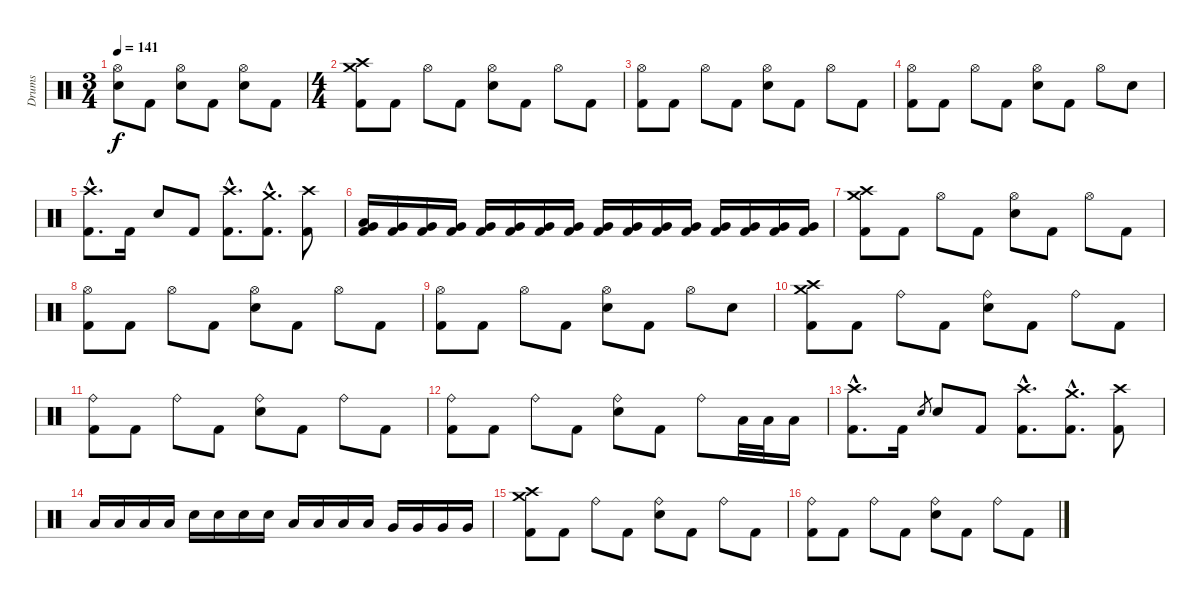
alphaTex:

\track ("Drums" "Drums") {instrument percussion}
\staff {score}
\articulation defaults
\ts (3 4)
\tempo 141
\clef neutral
\ks c
("Hi-Hat (open)" "Snare (hit) 2").8{dy f} "Kick (hit) 2".8 ("Hi-Hat (open)" "Snare (hit) 2").8 "Kick (hit) 2".8 ("Hi-Hat (open)" "Snare (hit) 2").8 "Kick (hit) 2".8 |
\ts (4 4)
("Crash high (hit)" "Crash medium (hit)" "Kick (hit) 2").8 "Kick (hit) 2".8 "Hi-Hat (open)".8 "Kick (hit) 2".8 ("Hi-Hat (open)" "Snare (hit) 2").8 "Kick (hit) 2".8 "Hi-Hat (open)".8 "Kick (hit) 2".8 |
("Hi-Hat (open)" "Kick (hit) 2").8 "Kick (hit) 2".8 "Hi-Hat (open)".8 "Kick (hit) 2".8 ("Hi-Hat (open)" "Snare (hit) 2").8 "Kick (hit) 2".8 "Hi-Hat (open)".8 "Kick (hit) 2".8 |
("Hi-Hat (open)" "Kick (hit) 2").8 "Kick (hit) 2".8 "Hi-Hat (open)".8 "Kick (hit) 2".8 ("Hi-Hat (open)" "Snare (hit) 2").8 "Kick (hit) 2".8 "Hi-Hat (open)".8 "Snare (hit) 2".8 |
("Crash high (hit)"{hac} "Kick (hit) 2"{hac}).8{d} "Kick (hit) 2".16 "Snare (hit) 2".8 "Kick (hit) 2".8 ("Crash high (hit)"{hac} "Kick (hit) 2"{hac}).8{d} ("Crash medium (hit)"{hac} "Kick (hit) 2"{hac}).8{d} ("Crash high (hit)" "Kick (hit) 2").8 |
("Very Low Tom (hit)" "Low Floor Tom (hit)" "Kick (hit) 2").16 ("Very Low Tom (hit)" "Kick (hit) 2").16 ("Very Low Tom (hit)" "Kick (hit) 2").16 ("Very Low Tom (hit)" "Kick (hit) 2").16 ("Very Low Tom (hit)" "Kick (hit) 2").16 ("Very Low Tom (hit)" "Kick (hit) 2").16 ("Very Low Tom (hit)" "Kick (hit) 2").16 ("Very Low Tom (hit)" "Kick (hit) 2").16 ("Very Low Tom (hit)" "Kick (hit) 2").16 ("Very Low Tom (hit)" "Kick (hit) 2").16 ("Very Low Tom (hit)" "Kick (hit) 2").16 ("Very Low Tom (hit)" "Kick (hit) 2").16 ("Very Low Tom (hit)" "Kick (hit) 2").16 ("Very Low Tom (hit)" "Kick (hit) 2").16 ("Very Low Tom (hit)" "Kick (hit) 2").16 ("Very Low Tom (hit)" "Kick (hit) 2").16 |
("Crash high (hit)" "Crash medium (hit)" "Kick (hit) 2").8 "Kick (hit) 2".8 "Hi-Hat (open)".8 "Kick (hit) 2".8 ("Hi-Hat (open)" "Snare (hit) 2").8 "Kick (hit) 2".8 "Hi-Hat (open)".8 "Kick (hit) 2".8 |
("Hi-Hat (open)" "Kick (hit) 2").8 "Kick (hit) 2".8 "Hi-Hat (open)".8 "Kick (hit) 2".8 ("Hi-Hat (open)" "Snare (hit) 2").8 "Kick (hit) 2".8 "Hi-Hat (open)".8 "Kick (hit) 2".8 |
("Hi-Hat (open)" "Kick (hit) 2").8 "Kick (hit) 2".8 "Hi-Hat (open)".8 "Kick (hit) 2".8 ("Hi-Hat (open)" "Snare (hit) 2").8 "Kick (hit) 2".8 "Hi-Hat (open)".8 "Snare (hit) 2".8 |
("Crash high (hit)" "Crash medium (hit)" "Kick (hit) 2").8 "Kick (hit) 2".8 "Ride (bell)".8 "Kick (hit) 2".8 ("Ride (bell)" "Snare (hit) 2").8 "Kick (hit) 2".8 "Ride (bell)".8 "Kick (hit) 2".8 |
("Ride (bell)" "Kick (hit) 2").8 "Kick (hit) 2".8 "Ride (bell)".8 "Kick (hit) 2".8 ("Ride (bell)" "Snare (hit) 2").8 "Kick (hit) 2".8 "Ride (bell)".8 "Kick (hit) 2".8 |
("Ride (bell)" "Kick (hit) 2").8 "Kick (hit) 2".8 "Ride (bell)".8 "Kick (hit) 2".8 ("Ride (bell)" "Snare (hit) 2").8 "Kick (hit) 2".8 "Ride (bell)".8 "Low Tom (hit)".32 "Low Tom (hit)".32 "Low Tom (hit)".16 |
("Crash high (hit)"{hac} "Kick (hit) 2"{hac}).8{d} "Kick (hit) 2".16 "Snare (hit) 2".8{gr} "Snare (hit) 2".8 "Kick (hit) 2".8 ("Crash high (hit)"{hac} "Kick (hit) 2"{hac}).8{d} ("Crash medium (hit)"{hac} "Kick (hit) 2"{hac}).8{d} ("Crash high (hit)" "Kick (hit) 2").8 |
"Low Tom (hit)".16 "Low Tom (hit)".16 "Low Tom (hit)".16 "Low Tom (hit)".16 "Snare (hit) 2".16 "Snare (hit) 2".16 "Snare (hit) 2".16 "Snare (hit) 2".16 "Low Tom (hit)".16 "Low Tom (hit)".16 "Low Tom (hit)".16 "Low Tom (hit)".16 "Very Low Tom (hit)".16 "Very Low Tom (hit)".16 "Very Low Tom (hit)".16 "Very Low Tom (hit)".16 |
("Crash high (hit)" "Crash medium (hit)" "Kick (hit) 2").8 "Kick (hit) 2".8 "Ride (bell)".8 "Kick (hit) 2".8 ("Ride (bell)" "Snare (hit) 2").8 "Kick (hit) 2".8 "Ride (bell)".8 "Kick (hit) 2".8 |
("Ride (bell)" "Kick (hit) 2").8 "Kick (hit) 2".8 "Ride (bell)".8 "Kick (hit) 2".8 ("Ride (bell)" "Snare (hit) 2").8 "Kick (hit) 2".8 "Ride (bell)".8 "Kick (hit) 2".8
